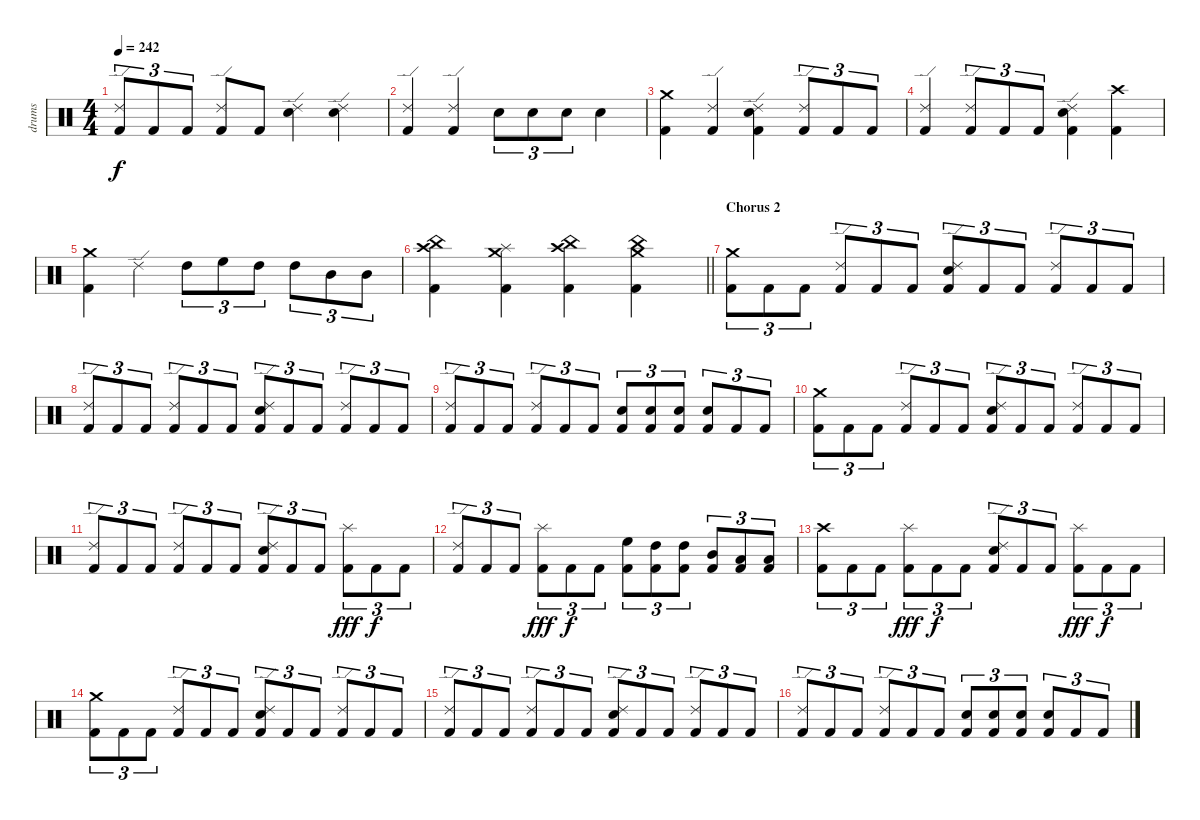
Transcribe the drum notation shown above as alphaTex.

\track ("drums" "drums") {instrument percussion}
\staff {score}
\articulation defaults
\ts (4 4)
\tempo 242
\clef neutral
\ks c
("Ride (edge) 2" "Kick (hit) 2").8{tu (3 2) dy f} "Kick (hit) 2".8{tu (3 2)} "Kick (hit) 2".8{tu (3 2)} ("Ride (edge) 2" "Kick (hit) 2").8 "Kick (hit) 2".8 ("Ride (edge) 2" "Electric Snare (hit)").4 ("Ride (edge) 2" "Electric Snare (hit)").4 |
("Ride (edge) 2" "Kick (hit) 2").4 ("Ride (edge) 2" "Kick (hit) 2").4 "Electric Snare (hit)".8{tu (3 2)} "Electric Snare (hit)".8{tu (3 2)} "Electric Snare (hit)".8{tu (3 2)} "Electric Snare (hit)".4 |
("Crash medium (hit)" "Kick (hit) 2").4 ("Ride (edge) 2" "Kick (hit) 2").4 ("Ride (edge) 2" "Electric Snare (hit)" "Kick (hit) 2").4 ("Ride (edge) 2" "Kick (hit) 2").8{tu (3 2)} "Kick (hit) 2".8{tu (3 2)} "Kick (hit) 2".8{tu (3 2)} |
("Ride (edge) 2" "Kick (hit) 2").4 ("Ride (edge) 2" "Kick (hit) 2").8{tu (3 2)} "Kick (hit) 2".8{tu (3 2)} "Kick (hit) 2".8{tu (3 2)} ("Ride (edge) 2" "Electric Snare (hit)" "Kick (hit) 2").4 ("Crash high (hit)" "Kick (hit) 2").4 |
("Crash medium (hit)" "Kick (hit) 2").4 "Ride (edge) 2".4 "High Tom (hit)".8{tu (3 2)} "High Floor Tom (hit)".8{tu (3 2)} "High Tom (hit)".8{tu (3 2)} "High Tom (hit)".8{tu (3 2)} "Mid Tom (hit)".8{tu (3 2)} "Mid Tom (hit)".8{tu (3 2)} |
\barLineRight lightlight
("China (hit)" "Crash high (hit)" "Kick (hit) 2").4 ("Splash (hit)" "Crash medium (hit)" "Kick (hit) 2").4 ("China (hit)" "Crash high (hit)" "Kick (hit) 2").4 ("China (hit)" "Crash medium (hit)" "Kick (hit) 2").4 |
\section ("" "Chorus 2")
("Crash medium (hit)" "Kick (hit) 2").8{tu (3 2)} "Kick (hit) 2".8{tu (3 2)} "Kick (hit) 2".8{tu (3 2)} ("Ride (edge) 2" "Kick (hit) 2").8{tu (3 2)} "Kick (hit) 2".8{tu (3 2)} "Kick (hit) 2".8{tu (3 2)} ("Ride (edge) 2" "Electric Snare (hit)" "Kick (hit) 2").8{tu (3 2)} "Kick (hit) 2".8{tu (3 2)} "Kick (hit) 2".8{tu (3 2)} ("Ride (edge) 2" "Kick (hit) 2").8{tu (3 2)} "Kick (hit) 2".8{tu (3 2)} "Kick (hit) 2".8{tu (3 2)} |
("Ride (edge) 2" "Kick (hit) 2").8{tu (3 2)} "Kick (hit) 2".8{tu (3 2)} "Kick (hit) 2".8{tu (3 2)} ("Ride (edge) 2" "Kick (hit) 2").8{tu (3 2)} "Kick (hit) 2".8{tu (3 2)} "Kick (hit) 2".8{tu (3 2)} ("Ride (edge) 2" "Electric Snare (hit)" "Kick (hit) 2").8{tu (3 2)} "Kick (hit) 2".8{tu (3 2)} "Kick (hit) 2".8{tu (3 2)} ("Ride (edge) 2" "Kick (hit) 2").8{tu (3 2)} "Kick (hit) 2".8{tu (3 2)} "Kick (hit) 2".8{tu (3 2)} |
("Ride (edge) 2" "Kick (hit) 2").8{tu (3 2)} "Kick (hit) 2".8{tu (3 2)} "Kick (hit) 2".8{tu (3 2)} ("Ride (edge) 2" "Kick (hit) 2").8{tu (3 2)} "Kick (hit) 2".8{tu (3 2)} "Kick (hit) 2".8{tu (3 2)} ("Electric Snare (hit)" "Kick (hit) 2").8{tu (3 2)} ("Electric Snare (hit)" "Kick (hit) 2").8{tu (3 2)} ("Electric Snare (hit)" "Kick (hit) 2").8{tu (3 2)} ("Electric Snare (hit)" "Kick (hit) 2").8{tu (3 2)} "Kick (hit) 2".8{tu (3 2)} "Kick (hit) 2".8{tu (3 2)} |
("Crash medium (hit)" "Kick (hit) 2").8{tu (3 2)} "Kick (hit) 2".8{tu (3 2)} "Kick (hit) 2".8{tu (3 2)} ("Ride (edge) 2" "Kick (hit) 2").8{tu (3 2)} "Kick (hit) 2".8{tu (3 2)} "Kick (hit) 2".8{tu (3 2)} ("Ride (edge) 2" "Electric Snare (hit)" "Kick (hit) 2").8{tu (3 2)} "Kick (hit) 2".8{tu (3 2)} "Kick (hit) 2".8{tu (3 2)} ("Ride (edge) 2" "Kick (hit) 2").8{tu (3 2)} "Kick (hit) 2".8{tu (3 2)} "Kick (hit) 2".8{tu (3 2)} |
("Ride (edge) 2" "Kick (hit) 2").8{tu (3 2)} "Kick (hit) 2".8{tu (3 2)} "Kick (hit) 2".8{tu (3 2)} ("Ride (edge) 2" "Kick (hit) 2").8{tu (3 2)} "Kick (hit) 2".8{tu (3 2)} "Kick (hit) 2".8{tu (3 2)} ("Ride (edge) 2" "Electric Snare (hit)" "Kick (hit) 2").8{tu (3 2)} "Kick (hit) 2".8{tu (3 2)} "Kick (hit) 2".8{tu (3 2)} ("Splash (hit)" "Kick (hit) 2").8{tu (3 2) dy fff} "Kick (hit) 2".8{tu (3 2) dy f} "Kick (hit) 2".8{tu (3 2)} |
("Ride (edge) 2" "Kick (hit) 2").8{tu (3 2)} "Kick (hit) 2".8{tu (3 2)} "Kick (hit) 2".8{tu (3 2)} ("Splash (hit)" "Kick (hit) 2").8{tu (3 2) dy fff} "Kick (hit) 2".8{tu (3 2) dy f} "Kick (hit) 2".8{tu (3 2)} ("High Floor Tom (hit)" "Kick (hit) 2").8{tu (3 2)} ("High Tom (hit)" "Kick (hit) 2").8{tu (3 2)} ("High Tom (hit)" "Kick (hit) 2").8{tu (3 2)} ("Mid Tom (hit)" "Kick (hit) 2").8{tu (3 2)} ("Low Tom (hit)" "Kick (hit) 2").8{tu (3 2)} ("Low Tom (hit)" "Kick (hit) 2").8{tu (3 2)} |
("Crash high (hit)" "Kick (hit) 2").8{tu (3 2)} "Kick (hit) 2".8{tu (3 2)} "Kick (hit) 2".8{tu (3 2)} ("Splash (hit)" "Kick (hit) 2").8{tu (3 2) dy fff} "Kick (hit) 2".8{tu (3 2) dy f} "Kick (hit) 2".8{tu (3 2)} ("Ride (edge) 2" "Electric Snare (hit)" "Kick (hit) 2").8{tu (3 2)} "Kick (hit) 2".8{tu (3 2)} "Kick (hit) 2".8{tu (3 2)} ("Splash (hit)" "Kick (hit) 2").8{tu (3 2) dy fff} "Kick (hit) 2".8{tu (3 2) dy f} "Kick (hit) 2".8{tu (3 2)} |
("Crash medium (hit)" "Kick (hit) 2").8{tu (3 2)} "Kick (hit) 2".8{tu (3 2)} "Kick (hit) 2".8{tu (3 2)} ("Ride (edge) 2" "Kick (hit) 2").8{tu (3 2)} "Kick (hit) 2".8{tu (3 2)} "Kick (hit) 2".8{tu (3 2)} ("Ride (edge) 2" "Electric Snare (hit)" "Kick (hit) 2").8{tu (3 2)} "Kick (hit) 2".8{tu (3 2)} "Kick (hit) 2".8{tu (3 2)} ("Ride (edge) 2" "Kick (hit) 2").8{tu (3 2)} "Kick (hit) 2".8{tu (3 2)} "Kick (hit) 2".8{tu (3 2)} |
("Ride (edge) 2" "Kick (hit) 2").8{tu (3 2)} "Kick (hit) 2".8{tu (3 2)} "Kick (hit) 2".8{tu (3 2)} ("Ride (edge) 2" "Kick (hit) 2").8{tu (3 2)} "Kick (hit) 2".8{tu (3 2)} "Kick (hit) 2".8{tu (3 2)} ("Ride (edge) 2" "Electric Snare (hit)" "Kick (hit) 2").8{tu (3 2)} "Kick (hit) 2".8{tu (3 2)} "Kick (hit) 2".8{tu (3 2)} ("Ride (edge) 2" "Kick (hit) 2").8{tu (3 2)} "Kick (hit) 2".8{tu (3 2)} "Kick (hit) 2".8{tu (3 2)} |
("Ride (edge) 2" "Kick (hit) 2").8{tu (3 2)} "Kick (hit) 2".8{tu (3 2)} "Kick (hit) 2".8{tu (3 2)} ("Ride (edge) 2" "Kick (hit) 2").8{tu (3 2)} "Kick (hit) 2".8{tu (3 2)} "Kick (hit) 2".8{tu (3 2)} ("Electric Snare (hit)" "Kick (hit) 2").8{tu (3 2)} ("Electric Snare (hit)" "Kick (hit) 2").8{tu (3 2)} ("Electric Snare (hit)" "Kick (hit) 2").8{tu (3 2)} ("Electric Snare (hit)" "Kick (hit) 2").8{tu (3 2)} "Kick (hit) 2".8{tu (3 2)} "Kick (hit) 2".8{tu (3 2)}
